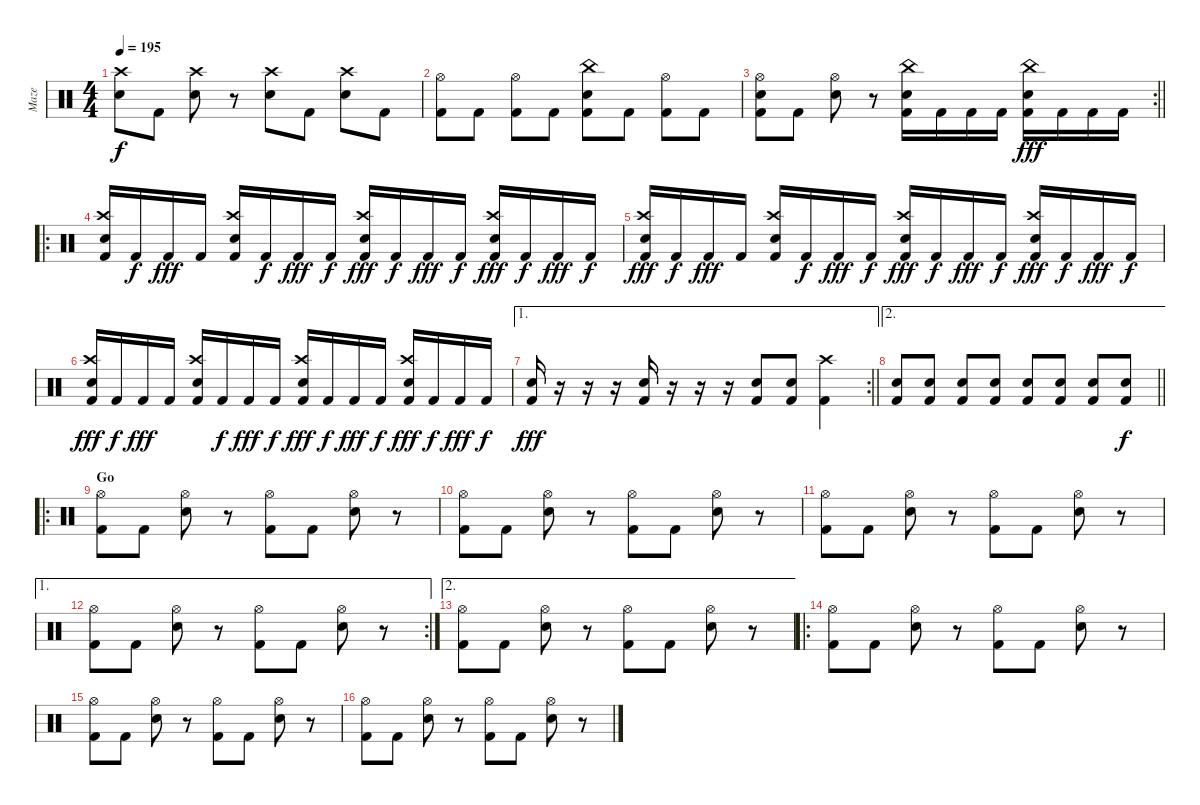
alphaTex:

\track ("Maze" "Maze") {instrument percussion}
\staff
\articulation defaults
\ts (4 4)
\tempo 195
\clef neutral
\ks c
("Snare (hit) 2" "Crash high (hit)").8{dy f} "Kick (hit) 2".8 ("Snare (hit) 2" "Crash high (hit)").8 r.8 ("Snare (hit) 2" "Crash high (hit)").8 "Kick (hit) 2".8 ("Snare (hit) 2" "Crash high (hit)").8 "Kick (hit) 2".8 |
("Hi-Hat (open)" "Kick (hit) 2").8 "Kick (hit) 2".8 ("Hi-Hat (open)" "Kick (hit) 2").8 "Kick (hit) 2".8 ("China (hit)" "Snare (hit) 2" "Kick (hit) 2").8 "Kick (hit) 2".8 ("Hi-Hat (open)" "Kick (hit) 2").8 "Kick (hit) 2".8 |
\rc 2
\barLineRight lightlight
("Snare (hit) 2" "Hi-Hat (open)" "Kick (hit) 2").8 "Kick (hit) 2".8 ("Snare (hit) 2" "Hi-Hat (open)").8 r.8 ("Snare (hit) 2" "China (hit)" "Kick (hit) 2").16 "Kick (hit) 2".16 "Kick (hit) 2".16 "Kick (hit) 2".16 ("Snare (hit) 2" "China (hit)" "Kick (hit) 2").16{dy fff} "Kick (hit) 2".16 "Kick (hit) 2".16 "Kick (hit) 2".16 |
\ro
("Snare (hit) 2" "Crash high (hit)" "Kick (hit) 2").16 "Kick (hit) 2".16{dy f} "Kick (hit) 2".16{dy fff} "Kick (hit) 2".16 ("Snare (hit) 2" "Crash high (hit)" "Kick (hit) 2").16 "Kick (hit) 2".16{dy f} "Kick (hit) 2".16{dy fff} "Kick (hit) 2".16{dy f} ("Snare (hit) 2" "Crash high (hit)" "Kick (hit) 2").16{dy fff} "Kick (hit) 2".16{dy f} "Kick (hit) 2".16{dy fff} "Kick (hit) 2".16{dy f} ("Snare (hit) 2" "Crash high (hit)" "Kick (hit) 2").16{dy fff} "Kick (hit) 2".16{dy f} "Kick (hit) 2".16{dy fff} "Kick (hit) 2".16{dy f} |
("Snare (hit) 2" "Crash high (hit)" "Kick (hit) 2").16{dy fff} "Kick (hit) 2".16{dy f} "Kick (hit) 2".16{dy fff} "Kick (hit) 2".16 ("Snare (hit) 2" "Crash high (hit)" "Kick (hit) 2").16 "Kick (hit) 2".16{dy f} "Kick (hit) 2".16{dy fff} "Kick (hit) 2".16{dy f} ("Snare (hit) 2" "Crash high (hit)" "Kick (hit) 2").16{dy fff} "Kick (hit) 2".16{dy f} "Kick (hit) 2".16{dy fff} "Kick (hit) 2".16{dy f} ("Snare (hit) 2" "Crash high (hit)" "Kick (hit) 2").16{dy fff} "Kick (hit) 2".16{dy f} "Kick (hit) 2".16{dy fff} "Kick (hit) 2".16{dy f} |
("Snare (hit) 2" "Crash high (hit)" "Kick (hit) 2").16{dy fff} "Kick (hit) 2".16{dy f} "Kick (hit) 2".16{dy fff} "Kick (hit) 2".16 ("Snare (hit) 2" "Crash high (hit)" "Kick (hit) 2").16 "Kick (hit) 2".16{dy f} "Kick (hit) 2".16{dy fff} "Kick (hit) 2".16{dy f} ("Snare (hit) 2" "Crash high (hit)" "Kick (hit) 2").16{dy fff} "Kick (hit) 2".16{dy f} "Kick (hit) 2".16{dy fff} "Kick (hit) 2".16{dy f} ("Snare (hit) 2" "Crash high (hit)" "Kick (hit) 2").16{dy fff} "Kick (hit) 2".16{dy f} "Kick (hit) 2".16{dy fff} "Kick (hit) 2".16{dy f} |
\ae 1
\rc 2
\barLineRight lightlight
("Snare (hit) 2" "Kick (hit) 2").16{dy fff} r.16 r.16 r.16 ("Snare (hit) 2" "Kick (hit) 2").16 r.16 r.16 r.16 ("Electric Snare (hit)" "Kick (hit) 2").8 ("Electric Snare (hit)" "Kick (hit) 2").8 ("Crash high (hit)" "Kick (hit) 2").4 |
\ae 2
\barLineRight lightlight
("Snare (hit) 2" "Kick (hit) 2").8 ("Snare (hit) 2" "Kick (hit) 2").8 ("Snare (hit) 2" "Kick (hit) 2").8 ("Snare (hit) 2" "Kick (hit) 2").8 ("Snare (hit) 2" "Kick (hit) 2").8 ("Snare (hit) 2" "Kick (hit) 2").8 ("Snare (hit) 2" "Kick (hit) 2").8 ("Snare (hit) 2" "Kick (hit) 2").8{dy f} |
\ro
\section ("" "Go")
("Hi-Hat (open)" "Kick (hit) 2").8 "Kick (hit) 2".8 ("Snare (hit) 2" "Hi-Hat (open)").8 r.8 ("Hi-Hat (open)" "Kick (hit) 2").8 "Kick (hit) 2".8 ("Snare (hit) 2" "Hi-Hat (open)").8 r.8 |
("Hi-Hat (open)" "Kick (hit) 2").8 "Kick (hit) 2".8 ("Snare (hit) 2" "Hi-Hat (open)").8 r.8 ("Hi-Hat (open)" "Kick (hit) 2").8 "Kick (hit) 2".8 ("Snare (hit) 2" "Hi-Hat (open)").8 r.8 |
("Hi-Hat (open)" "Kick (hit) 2").8 "Kick (hit) 2".8 ("Snare (hit) 2" "Hi-Hat (open)").8 r.8 ("Hi-Hat (open)" "Kick (hit) 2").8 "Kick (hit) 2".8 ("Snare (hit) 2" "Hi-Hat (open)").8 r.8 |
\ae 1
\rc 2
("Hi-Hat (open)" "Kick (hit) 2").8 "Kick (hit) 2".8 ("Snare (hit) 2" "Hi-Hat (open)").8 r.8 ("Hi-Hat (open)" "Kick (hit) 2").8 "Kick (hit) 2".8 ("Snare (hit) 2" "Hi-Hat (open)").8 r.8 |
\ae 2
("Hi-Hat (open)" "Kick (hit) 2").8 "Kick (hit) 2".8 ("Snare (hit) 2" "Hi-Hat (open)").8 r.8 ("Hi-Hat (open)" "Kick (hit) 2").8 "Kick (hit) 2".8 ("Snare (hit) 2" "Hi-Hat (open)").8 r.8 |
\ro
("Hi-Hat (open)" "Kick (hit) 2").8 "Kick (hit) 2".8 ("Snare (hit) 2" "Hi-Hat (open)").8 r.8 ("Hi-Hat (open)" "Kick (hit) 2").8 "Kick (hit) 2".8 ("Snare (hit) 2" "Hi-Hat (open)").8 r.8 |
("Hi-Hat (open)" "Kick (hit) 2").8 "Kick (hit) 2".8 ("Snare (hit) 2" "Hi-Hat (open)").8 r.8 ("Hi-Hat (open)" "Kick (hit) 2").8 "Kick (hit) 2".8 ("Snare (hit) 2" "Hi-Hat (open)").8 r.8 |
("Hi-Hat (open)" "Kick (hit) 2").8 "Kick (hit) 2".8 ("Snare (hit) 2" "Hi-Hat (open)").8 r.8 ("Hi-Hat (open)" "Kick (hit) 2").8 "Kick (hit) 2".8 ("Snare (hit) 2" "Hi-Hat (open)").8 r.8
